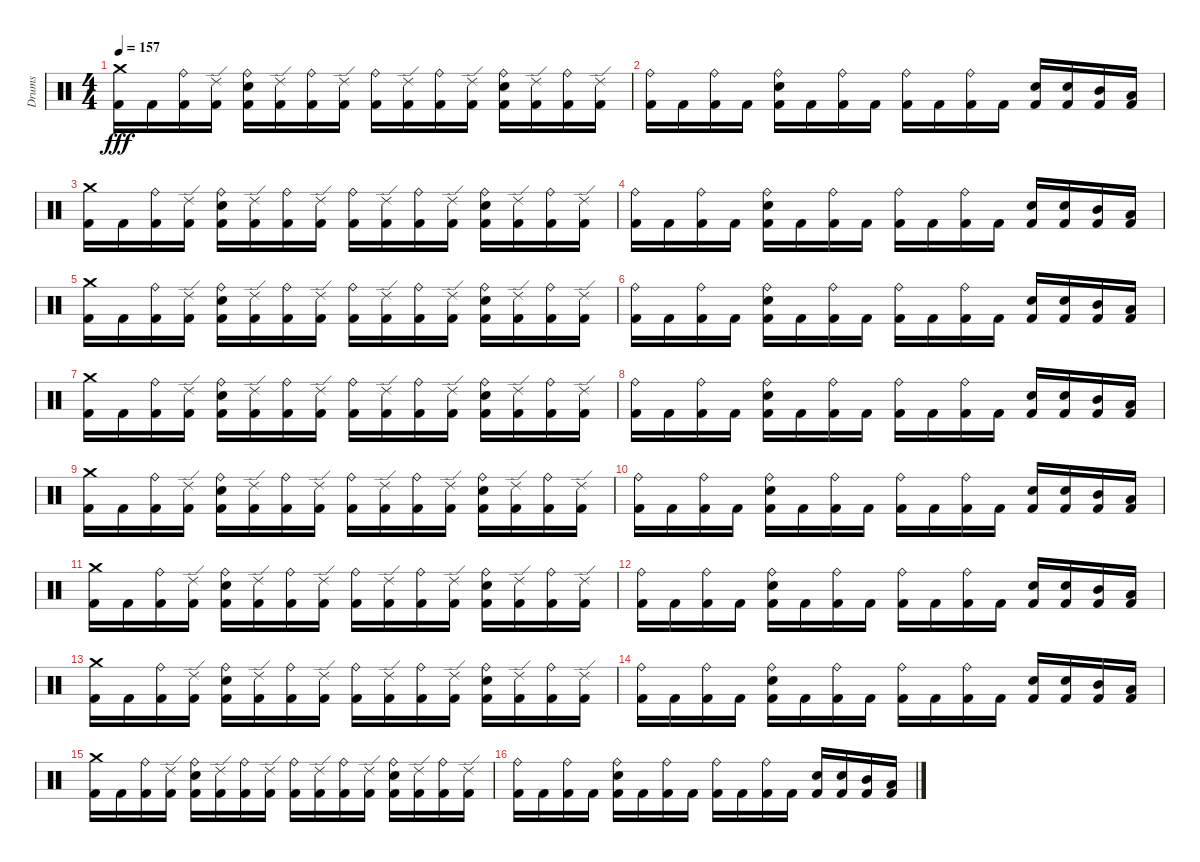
\track ("Drums" "Drums") {instrument percussion}
\staff {score}
\articulation defaults
\ts (4 4)
\tempo 157
\clef neutral
\ks c
("Kick (hit) 2" "Crash medium (hit)").16{dy fff} "Kick (hit) 2".16 ("Kick (hit) 2" "Ride (bell)").16 ("Kick (hit) 2" "Ride (edge) 2").16 ("Kick (hit) 2" "Snare (hit) 2" "Ride (bell)").16 ("Kick (hit) 2" "Ride (edge) 2").16 ("Kick (hit) 2" "Ride (bell)").16 ("Kick (hit) 2" "Ride (edge) 2").16 ("Kick (hit) 2" "Ride (bell)").16 ("Kick (hit) 2" "Ride (edge) 2").16 ("Kick (hit) 2" "Ride (bell)").16 ("Kick (hit) 2" "Ride (edge) 2").16 ("Kick (hit) 2" "Snare (hit) 2" "Ride (bell)").16 ("Kick (hit) 2" "Ride (edge) 2").16 ("Kick (hit) 2" "Ride (bell)").16 ("Kick (hit) 2" "Ride (edge) 2").16 |
("Kick (hit) 2" "Ride (bell)").16 "Kick (hit) 2".16 ("Kick (hit) 2" "Ride (bell)").16 "Kick (hit) 2".16 ("Kick (hit) 2" "Snare (hit) 2" "Ride (bell)").16 "Kick (hit) 2".16 ("Kick (hit) 2" "Ride (bell)").16 "Kick (hit) 2".16 ("Kick (hit) 2" "Ride (bell)").16 "Kick (hit) 2".16 ("Kick (hit) 2" "Ride (bell)").16 "Kick (hit) 2".16 ("Kick (hit) 2" "Snare (hit) 2").16 ("Kick (hit) 2" "Snare (hit) 2").16 ("Kick (hit) 2" "Mid Tom (hit)").16 ("Kick (hit) 2" "Low Tom (hit)").16 |
("Kick (hit) 2" "Crash medium (hit)").16 "Kick (hit) 2".16 ("Kick (hit) 2" "Ride (bell)").16 ("Kick (hit) 2" "Ride (edge) 2").16 ("Kick (hit) 2" "Snare (hit) 2" "Ride (bell)").16 ("Kick (hit) 2" "Ride (edge) 2").16 ("Kick (hit) 2" "Ride (bell)").16 ("Kick (hit) 2" "Ride (edge) 2").16 ("Kick (hit) 2" "Ride (bell)").16 ("Kick (hit) 2" "Ride (edge) 2").16 ("Kick (hit) 2" "Ride (bell)").16 ("Kick (hit) 2" "Ride (edge) 2").16 ("Kick (hit) 2" "Snare (hit) 2" "Ride (bell)").16 ("Kick (hit) 2" "Ride (edge) 2").16 ("Kick (hit) 2" "Ride (bell)").16 ("Kick (hit) 2" "Ride (edge) 2").16 |
("Kick (hit) 2" "Ride (bell)").16 "Kick (hit) 2".16 ("Kick (hit) 2" "Ride (bell)").16 "Kick (hit) 2".16 ("Kick (hit) 2" "Snare (hit) 2" "Ride (bell)").16 "Kick (hit) 2".16 ("Kick (hit) 2" "Ride (bell)").16 "Kick (hit) 2".16 ("Kick (hit) 2" "Ride (bell)").16 "Kick (hit) 2".16 ("Kick (hit) 2" "Ride (bell)").16 "Kick (hit) 2".16 ("Kick (hit) 2" "Snare (hit) 2").16 ("Kick (hit) 2" "Snare (hit) 2").16 ("Kick (hit) 2" "Mid Tom (hit)").16 ("Kick (hit) 2" "Low Tom (hit)").16 |
("Kick (hit) 2" "Crash medium (hit)").16 "Kick (hit) 2".16 ("Kick (hit) 2" "Ride (bell)").16 ("Kick (hit) 2" "Ride (edge) 2").16 ("Kick (hit) 2" "Snare (hit) 2" "Ride (bell)").16 ("Kick (hit) 2" "Ride (edge) 2").16 ("Kick (hit) 2" "Ride (bell)").16 ("Kick (hit) 2" "Ride (edge) 2").16 ("Kick (hit) 2" "Ride (bell)").16 ("Kick (hit) 2" "Ride (edge) 2").16 ("Kick (hit) 2" "Ride (bell)").16 ("Kick (hit) 2" "Ride (edge) 2").16 ("Kick (hit) 2" "Snare (hit) 2" "Ride (bell)").16 ("Kick (hit) 2" "Ride (edge) 2").16 ("Kick (hit) 2" "Ride (bell)").16 ("Kick (hit) 2" "Ride (edge) 2").16 |
("Kick (hit) 2" "Ride (bell)").16 "Kick (hit) 2".16 ("Kick (hit) 2" "Ride (bell)").16 "Kick (hit) 2".16 ("Kick (hit) 2" "Snare (hit) 2" "Ride (bell)").16 "Kick (hit) 2".16 ("Kick (hit) 2" "Ride (bell)").16 "Kick (hit) 2".16 ("Kick (hit) 2" "Ride (bell)").16 "Kick (hit) 2".16 ("Kick (hit) 2" "Ride (bell)").16 "Kick (hit) 2".16 ("Kick (hit) 2" "Snare (hit) 2").16 ("Kick (hit) 2" "Snare (hit) 2").16 ("Kick (hit) 2" "Mid Tom (hit)").16 ("Kick (hit) 2" "Low Tom (hit)").16 |
("Kick (hit) 2" "Crash medium (hit)").16 "Kick (hit) 2".16 ("Kick (hit) 2" "Ride (bell)").16 ("Kick (hit) 2" "Ride (edge) 2").16 ("Kick (hit) 2" "Snare (hit) 2" "Ride (bell)").16 ("Kick (hit) 2" "Ride (edge) 2").16 ("Kick (hit) 2" "Ride (bell)").16 ("Kick (hit) 2" "Ride (edge) 2").16 ("Kick (hit) 2" "Ride (bell)").16 ("Kick (hit) 2" "Ride (edge) 2").16 ("Kick (hit) 2" "Ride (bell)").16 ("Kick (hit) 2" "Ride (edge) 2").16 ("Kick (hit) 2" "Snare (hit) 2" "Ride (bell)").16 ("Kick (hit) 2" "Ride (edge) 2").16 ("Kick (hit) 2" "Ride (bell)").16 ("Kick (hit) 2" "Ride (edge) 2").16 |
("Kick (hit) 2" "Ride (bell)").16 "Kick (hit) 2".16 ("Kick (hit) 2" "Ride (bell)").16 "Kick (hit) 2".16 ("Kick (hit) 2" "Snare (hit) 2" "Ride (bell)").16 "Kick (hit) 2".16 ("Kick (hit) 2" "Ride (bell)").16 "Kick (hit) 2".16 ("Kick (hit) 2" "Ride (bell)").16 "Kick (hit) 2".16 ("Kick (hit) 2" "Ride (bell)").16 "Kick (hit) 2".16 ("Kick (hit) 2" "Snare (hit) 2").16 ("Kick (hit) 2" "Snare (hit) 2").16 ("Kick (hit) 2" "Mid Tom (hit)").16 ("Kick (hit) 2" "Low Tom (hit)").16 |
("Kick (hit) 2" "Crash medium (hit)").16 "Kick (hit) 2".16 ("Kick (hit) 2" "Ride (bell)").16 ("Kick (hit) 2" "Ride (edge) 2").16 ("Kick (hit) 2" "Snare (hit) 2" "Ride (bell)").16 ("Kick (hit) 2" "Ride (edge) 2").16 ("Kick (hit) 2" "Ride (bell)").16 ("Kick (hit) 2" "Ride (edge) 2").16 ("Kick (hit) 2" "Ride (bell)").16 ("Kick (hit) 2" "Ride (edge) 2").16 ("Kick (hit) 2" "Ride (bell)").16 ("Kick (hit) 2" "Ride (edge) 2").16 ("Kick (hit) 2" "Snare (hit) 2" "Ride (bell)").16 ("Kick (hit) 2" "Ride (edge) 2").16 ("Kick (hit) 2" "Ride (bell)").16 ("Kick (hit) 2" "Ride (edge) 2").16 |
("Kick (hit) 2" "Ride (bell)").16 "Kick (hit) 2".16 ("Kick (hit) 2" "Ride (bell)").16 "Kick (hit) 2".16 ("Kick (hit) 2" "Snare (hit) 2" "Ride (bell)").16 "Kick (hit) 2".16 ("Kick (hit) 2" "Ride (bell)").16 "Kick (hit) 2".16 ("Kick (hit) 2" "Ride (bell)").16 "Kick (hit) 2".16 ("Kick (hit) 2" "Ride (bell)").16 "Kick (hit) 2".16 ("Kick (hit) 2" "Snare (hit) 2").16 ("Kick (hit) 2" "Snare (hit) 2").16 ("Kick (hit) 2" "Mid Tom (hit)").16 ("Kick (hit) 2" "Low Tom (hit)").16 |
("Kick (hit) 2" "Crash medium (hit)").16 "Kick (hit) 2".16 ("Kick (hit) 2" "Ride (bell)").16 ("Kick (hit) 2" "Ride (edge) 2").16 ("Kick (hit) 2" "Snare (hit) 2" "Ride (bell)").16 ("Kick (hit) 2" "Ride (edge) 2").16 ("Kick (hit) 2" "Ride (bell)").16 ("Kick (hit) 2" "Ride (edge) 2").16 ("Kick (hit) 2" "Ride (bell)").16 ("Kick (hit) 2" "Ride (edge) 2").16 ("Kick (hit) 2" "Ride (bell)").16 ("Kick (hit) 2" "Ride (edge) 2").16 ("Kick (hit) 2" "Snare (hit) 2" "Ride (bell)").16 ("Kick (hit) 2" "Ride (edge) 2").16 ("Kick (hit) 2" "Ride (bell)").16 ("Kick (hit) 2" "Ride (edge) 2").16 |
("Kick (hit) 2" "Ride (bell)").16 "Kick (hit) 2".16 ("Kick (hit) 2" "Ride (bell)").16 "Kick (hit) 2".16 ("Kick (hit) 2" "Snare (hit) 2" "Ride (bell)").16 "Kick (hit) 2".16 ("Kick (hit) 2" "Ride (bell)").16 "Kick (hit) 2".16 ("Kick (hit) 2" "Ride (bell)").16 "Kick (hit) 2".16 ("Kick (hit) 2" "Ride (bell)").16 "Kick (hit) 2".16 ("Kick (hit) 2" "Snare (hit) 2").16 ("Kick (hit) 2" "Snare (hit) 2").16 ("Kick (hit) 2" "Mid Tom (hit)").16 ("Kick (hit) 2" "Low Tom (hit)").16 |
("Kick (hit) 2" "Crash medium (hit)").16 "Kick (hit) 2".16 ("Kick (hit) 2" "Ride (bell)").16 ("Kick (hit) 2" "Ride (edge) 2").16 ("Kick (hit) 2" "Snare (hit) 2" "Ride (bell)").16 ("Kick (hit) 2" "Ride (edge) 2").16 ("Kick (hit) 2" "Ride (bell)").16 ("Kick (hit) 2" "Ride (edge) 2").16 ("Kick (hit) 2" "Ride (bell)").16 ("Kick (hit) 2" "Ride (edge) 2").16 ("Kick (hit) 2" "Ride (bell)").16 ("Kick (hit) 2" "Ride (edge) 2").16 ("Kick (hit) 2" "Snare (hit) 2" "Ride (bell)").16 ("Kick (hit) 2" "Ride (edge) 2").16 ("Kick (hit) 2" "Ride (bell)").16 ("Kick (hit) 2" "Ride (edge) 2").16 |
("Kick (hit) 2" "Ride (bell)").16 "Kick (hit) 2".16 ("Kick (hit) 2" "Ride (bell)").16 "Kick (hit) 2".16 ("Kick (hit) 2" "Snare (hit) 2" "Ride (bell)").16 "Kick (hit) 2".16 ("Kick (hit) 2" "Ride (bell)").16 "Kick (hit) 2".16 ("Kick (hit) 2" "Ride (bell)").16 "Kick (hit) 2".16 ("Kick (hit) 2" "Ride (bell)").16 "Kick (hit) 2".16 ("Kick (hit) 2" "Snare (hit) 2").16 ("Kick (hit) 2" "Snare (hit) 2").16 ("Kick (hit) 2" "Mid Tom (hit)").16 ("Kick (hit) 2" "Low Tom (hit)").16 |
("Kick (hit) 2" "Crash medium (hit)").16 "Kick (hit) 2".16 ("Kick (hit) 2" "Ride (bell)").16 ("Kick (hit) 2" "Ride (edge) 2").16 ("Kick (hit) 2" "Snare (hit) 2" "Ride (bell)").16 ("Kick (hit) 2" "Ride (edge) 2").16 ("Kick (hit) 2" "Ride (bell)").16 ("Kick (hit) 2" "Ride (edge) 2").16 ("Kick (hit) 2" "Ride (bell)").16 ("Kick (hit) 2" "Ride (edge) 2").16 ("Kick (hit) 2" "Ride (bell)").16 ("Kick (hit) 2" "Ride (edge) 2").16 ("Kick (hit) 2" "Snare (hit) 2" "Ride (bell)").16 ("Kick (hit) 2" "Ride (edge) 2").16 ("Kick (hit) 2" "Ride (bell)").16 ("Kick (hit) 2" "Ride (edge) 2").16 |
("Kick (hit) 2" "Ride (bell)").16 "Kick (hit) 2".16 ("Kick (hit) 2" "Ride (bell)").16 "Kick (hit) 2".16 ("Kick (hit) 2" "Snare (hit) 2" "Ride (bell)").16 "Kick (hit) 2".16 ("Kick (hit) 2" "Ride (bell)").16 "Kick (hit) 2".16 ("Kick (hit) 2" "Ride (bell)").16 "Kick (hit) 2".16 ("Kick (hit) 2" "Ride (bell)").16 "Kick (hit) 2".16 ("Kick (hit) 2" "Snare (hit) 2").16 ("Kick (hit) 2" "Snare (hit) 2").16 ("Kick (hit) 2" "Mid Tom (hit)").16 ("Kick (hit) 2" "Low Tom (hit)").16
